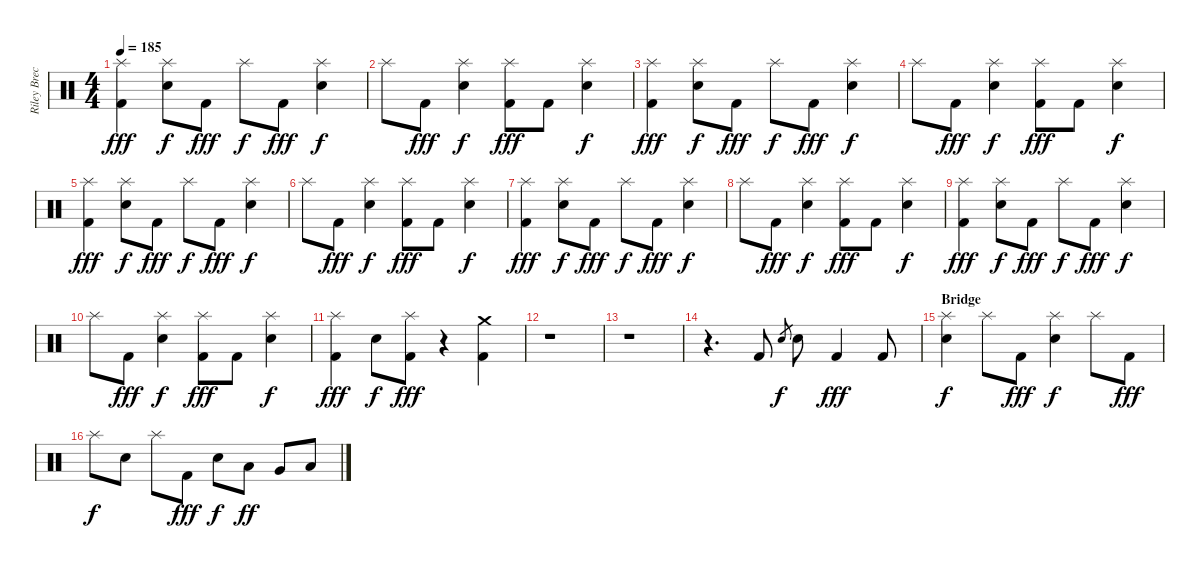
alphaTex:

\track ("Riley Breckenridge (Drums)" "Riley Brec") {instrument percussion}
\staff {score}
\articulation defaults
\ts (4 4)
\tempo 185
\clef neutral
\ks c
("Splash (hit)" "Kick (hit) 2").4{dy fff} ("Splash (hit)" "Electric Snare (hit)").8{dy f} "Kick (hit) 2".8{dy fff} "Splash (hit)".8{dy f} "Kick (hit) 2".8{dy fff} ("Splash (hit)" "Electric Snare (hit)").4{dy f} |
"Splash (hit)".8 "Kick (hit) 2".8{dy fff} ("Splash (hit)" "Electric Snare (hit)").4{dy f} ("Splash (hit)" "Kick (hit) 2").8{dy fff} "Kick (hit) 2".8 ("Splash (hit)" "Electric Snare (hit)").4{dy f} |
("Splash (hit)" "Kick (hit) 2").4{dy fff} ("Splash (hit)" "Electric Snare (hit)").8{dy f} "Kick (hit) 2".8{dy fff} "Splash (hit)".8{dy f} "Kick (hit) 2".8{dy fff} ("Splash (hit)" "Electric Snare (hit)").4{dy f} |
"Splash (hit)".8 "Kick (hit) 2".8{dy fff} ("Splash (hit)" "Electric Snare (hit)").4{dy f} ("Splash (hit)" "Kick (hit) 2").8{dy fff} "Kick (hit) 2".8 ("Splash (hit)" "Electric Snare (hit)").4{dy f} |
("Splash (hit)" "Kick (hit) 2").4{dy fff} ("Splash (hit)" "Electric Snare (hit)").8{dy f} "Kick (hit) 2".8{dy fff} "Splash (hit)".8{dy f} "Kick (hit) 2".8{dy fff} ("Splash (hit)" "Electric Snare (hit)").4{dy f} |
"Splash (hit)".8 "Kick (hit) 2".8{dy fff} ("Splash (hit)" "Electric Snare (hit)").4{dy f} ("Splash (hit)" "Kick (hit) 2").8{dy fff} "Kick (hit) 2".8 ("Splash (hit)" "Electric Snare (hit)").4{dy f} |
("Splash (hit)" "Kick (hit) 2").4{dy fff} ("Splash (hit)" "Electric Snare (hit)").8{dy f} "Kick (hit) 2".8{dy fff} "Splash (hit)".8{dy f} "Kick (hit) 2".8{dy fff} ("Splash (hit)" "Electric Snare (hit)").4{dy f} |
"Splash (hit)".8 "Kick (hit) 2".8{dy fff} ("Splash (hit)" "Electric Snare (hit)").4{dy f} ("Splash (hit)" "Kick (hit) 2").8{dy fff} "Kick (hit) 2".8 ("Splash (hit)" "Electric Snare (hit)").4{dy f} |
("Splash (hit)" "Kick (hit) 2").4{dy fff} ("Splash (hit)" "Electric Snare (hit)").8{dy f} "Kick (hit) 2".8{dy fff} "Splash (hit)".8{dy f} "Kick (hit) 2".8{dy fff} ("Splash (hit)" "Electric Snare (hit)").4{dy f} |
"Splash (hit)".8 "Kick (hit) 2".8{dy fff} ("Splash (hit)" "Electric Snare (hit)").4{dy f} ("Splash (hit)" "Kick (hit) 2").8{dy fff} "Kick (hit) 2".8 ("Splash (hit)" "Electric Snare (hit)").4{dy f} |
("Splash (hit)" "Kick (hit) 2").4{dy fff} "Electric Snare (hit)".8{dy f} ("Splash (hit)" "Kick (hit) 2").8{dy fff} r.4 ("Crash medium (hit)" "Kick (hit) 2").4 |
r.1 |
r.1 |
r.4{d} "Kick (hit) 2".8 "Electric Snare (hit)".8{gr dy f} "Electric Snare (hit)".8 "Kick (hit) 2".4{dy fff} "Kick (hit) 2".8 |
\section ("" "Bridge")
("Splash (hit)" "Electric Snare (hit)").4{dy f} "Splash (hit)".8 "Kick (hit) 2".8{dy fff} ("Splash (hit)" "Electric Snare (hit)").4{dy f} "Splash (hit)".8 "Kick (hit) 2".8{dy fff} |
"Splash (hit)".8{dy f} "Electric Snare (hit)".8 "Splash (hit)".8 "Kick (hit) 2".8{dy fff} "Electric Snare (hit)".8{dy f} "Low Tom (hit)".8{dy ff} "Very Low Tom (hit)".8 "Low Floor Tom (hit)".8
